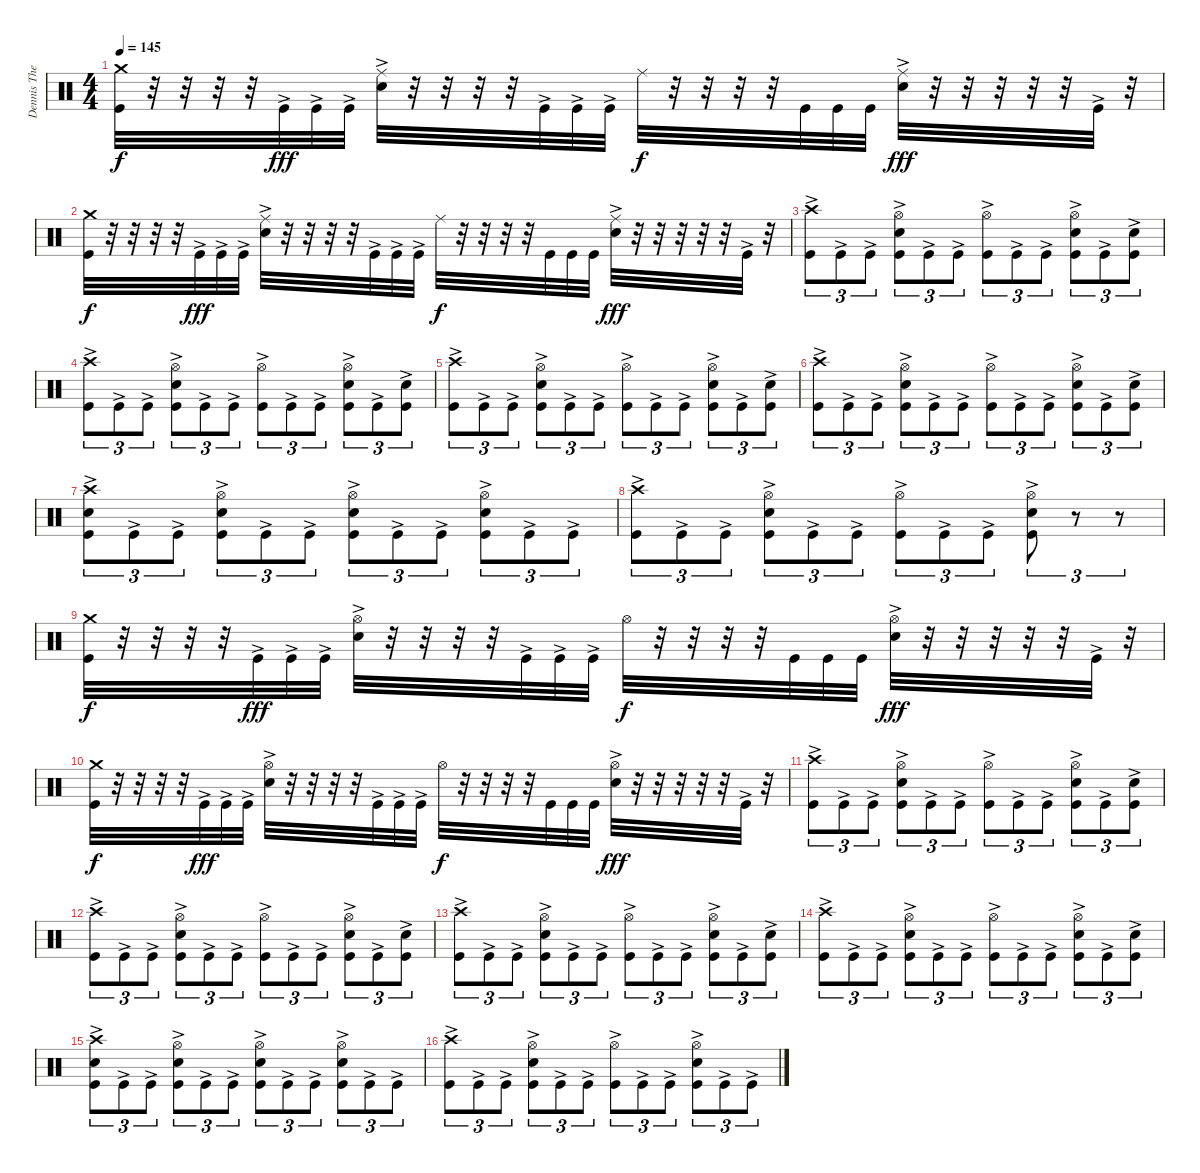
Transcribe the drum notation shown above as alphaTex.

\track ("Dennis The Menace" "Dennis The") {instrument percussion}
\staff {score}
\articulation defaults
\ts (4 4)
\tempo 145
\clef neutral
\ks c
("Crash medium (hit)" "Kick (hit)").32{dy f} r.32 r.32 r.32 r.32 "Kick (hit)"{ac}.32{dy fff} "Kick (hit)"{ac}.32 "Kick (hit)"{ac}.32 ("Ride (middle)" "Electric Snare (hit)"{ac}).32 r.32 r.32 r.32 r.32 "Kick (hit)"{ac}.32 "Kick (hit)"{ac}.32 "Kick (hit)"{ac}.32 "Ride (middle)".32{dy f} r.32 r.32 r.32 r.32 "Kick (hit)".32 "Kick (hit)".32 "Kick (hit)".32 ("Ride (middle)" "Electric Snare (hit)"{ac}).32{dy fff} r.32 r.32 r.32 r.32 r.32 "Kick (hit)"{ac}.32 r.32 |
("Crash medium (hit)" "Kick (hit)").32{dy f} r.32 r.32 r.32 r.32 "Kick (hit)"{ac}.32{dy fff} "Kick (hit)"{ac}.32 "Kick (hit)"{ac}.32 ("Ride (middle)" "Electric Snare (hit)"{ac}).32 r.32 r.32 r.32 r.32 "Kick (hit)"{ac}.32 "Kick (hit)"{ac}.32 "Kick (hit)"{ac}.32 "Ride (middle)".32{dy f} r.32 r.32 r.32 r.32 "Kick (hit)".32 "Kick (hit)".32 "Kick (hit)".32 ("Ride (middle)" "Electric Snare (hit)"{ac}).32{dy fff} r.32 r.32 r.32 r.32 r.32 "Kick (hit)"{ac}.32 r.32 |
("Crash high (hit)" "Kick (hit)"{ac}).8{tu (3 2)} "Kick (hit)"{ac}.8{tu (3 2)} "Kick (hit)"{ac}.8{tu (3 2)} ("Hi-Hat (open)" "Electric Snare (hit)"{ac} "Kick (hit)"{ac}).8{tu (3 2)} "Kick (hit)"{ac}.8{tu (3 2)} "Kick (hit)"{ac}.8{tu (3 2)} ("Hi-Hat (open)" "Kick (hit)"{ac}).8{tu (3 2)} "Kick (hit)"{ac}.8{tu (3 2)} "Kick (hit)"{ac}.8{tu (3 2)} ("Hi-Hat (open)" "Electric Snare (hit)"{ac} "Kick (hit)"{ac}).8{tu (3 2)} "Kick (hit)"{ac}.8{tu (3 2)} ("Electric Snare (hit)"{ac} "Kick (hit)"{ac}).8{tu (3 2)} |
("Crash high (hit)" "Kick (hit)"{ac}).8{tu (3 2)} "Kick (hit)"{ac}.8{tu (3 2)} "Kick (hit)"{ac}.8{tu (3 2)} ("Hi-Hat (open)" "Electric Snare (hit)"{ac} "Kick (hit)"{ac}).8{tu (3 2)} "Kick (hit)"{ac}.8{tu (3 2)} "Kick (hit)"{ac}.8{tu (3 2)} ("Hi-Hat (open)" "Kick (hit)"{ac}).8{tu (3 2)} "Kick (hit)"{ac}.8{tu (3 2)} "Kick (hit)"{ac}.8{tu (3 2)} ("Hi-Hat (open)" "Electric Snare (hit)"{ac} "Kick (hit)"{ac}).8{tu (3 2)} "Kick (hit)"{ac}.8{tu (3 2)} ("Electric Snare (hit)"{ac} "Kick (hit)"{ac}).8{tu (3 2)} |
("Crash high (hit)" "Kick (hit)"{ac}).8{tu (3 2)} "Kick (hit)"{ac}.8{tu (3 2)} "Kick (hit)"{ac}.8{tu (3 2)} ("Hi-Hat (open)" "Electric Snare (hit)"{ac} "Kick (hit)"{ac}).8{tu (3 2)} "Kick (hit)"{ac}.8{tu (3 2)} "Kick (hit)"{ac}.8{tu (3 2)} ("Hi-Hat (open)" "Kick (hit)"{ac}).8{tu (3 2)} "Kick (hit)"{ac}.8{tu (3 2)} "Kick (hit)"{ac}.8{tu (3 2)} ("Hi-Hat (open)" "Electric Snare (hit)"{ac} "Kick (hit)"{ac}).8{tu (3 2)} "Kick (hit)"{ac}.8{tu (3 2)} ("Electric Snare (hit)"{ac} "Kick (hit)"{ac}).8{tu (3 2)} |
("Crash high (hit)" "Kick (hit)"{ac}).8{tu (3 2)} "Kick (hit)"{ac}.8{tu (3 2)} "Kick (hit)"{ac}.8{tu (3 2)} ("Hi-Hat (open)" "Electric Snare (hit)"{ac} "Kick (hit)"{ac}).8{tu (3 2)} "Kick (hit)"{ac}.8{tu (3 2)} "Kick (hit)"{ac}.8{tu (3 2)} ("Hi-Hat (open)" "Kick (hit)"{ac}).8{tu (3 2)} "Kick (hit)"{ac}.8{tu (3 2)} "Kick (hit)"{ac}.8{tu (3 2)} ("Hi-Hat (open)" "Electric Snare (hit)"{ac} "Kick (hit)"{ac}).8{tu (3 2)} "Kick (hit)"{ac}.8{tu (3 2)} ("Electric Snare (hit)"{ac} "Kick (hit)"{ac}).8{tu (3 2)} |
("Crash high (hit)" "Electric Snare (hit)"{ac} "Kick (hit)"{ac}).8{tu (3 2)} "Kick (hit)"{ac}.8{tu (3 2)} "Kick (hit)"{ac}.8{tu (3 2)} ("Hi-Hat (open)" "Electric Snare (hit)"{ac} "Kick (hit)"{ac}).8{tu (3 2)} "Kick (hit)"{ac}.8{tu (3 2)} "Kick (hit)"{ac}.8{tu (3 2)} ("Hi-Hat (open)" "Electric Snare (hit)"{ac} "Kick (hit)"{ac}).8{tu (3 2)} "Kick (hit)"{ac}.8{tu (3 2)} "Kick (hit)"{ac}.8{tu (3 2)} ("Hi-Hat (open)" "Electric Snare (hit)"{ac} "Kick (hit)"{ac}).8{tu (3 2)} "Kick (hit)"{ac}.8{tu (3 2)} "Kick (hit)"{ac}.8{tu (3 2)} |
("Crash high (hit)" "Kick (hit)"{ac}).8{tu (3 2)} "Kick (hit)"{ac}.8{tu (3 2)} "Kick (hit)"{ac}.8{tu (3 2)} ("Hi-Hat (open)" "Electric Snare (hit)"{ac} "Kick (hit)"{ac}).8{tu (3 2)} "Kick (hit)"{ac}.8{tu (3 2)} "Kick (hit)"{ac}.8{tu (3 2)} ("Hi-Hat (open)" "Kick (hit)"{ac}).8{tu (3 2)} "Kick (hit)"{ac}.8{tu (3 2)} "Kick (hit)"{ac}.8{tu (3 2)} ("Hi-Hat (open)" "Electric Snare (hit)"{ac} "Kick (hit)"{ac}).8{tu (3 2)} r.8{tu (3 2)} r.8{tu (3 2)} |
("Crash medium (hit)" "Kick (hit)").32{dy f} r.32 r.32 r.32 r.32 "Kick (hit)"{ac}.32{dy fff} "Kick (hit)"{ac}.32 "Kick (hit)"{ac}.32 ("Hi-Hat (open)" "Electric Snare (hit)"{ac}).32 r.32 r.32 r.32 r.32 "Kick (hit)"{ac}.32 "Kick (hit)"{ac}.32 "Kick (hit)"{ac}.32 "Hi-Hat (open)".32{dy f} r.32 r.32 r.32 r.32 "Kick (hit)".32 "Kick (hit)".32 "Kick (hit)".32 ("Hi-Hat (open)" "Electric Snare (hit)"{ac}).32{dy fff} r.32 r.32 r.32 r.32 r.32 "Kick (hit)"{ac}.32 r.32 |
("Crash medium (hit)" "Kick (hit)").32{dy f} r.32 r.32 r.32 r.32 "Kick (hit)"{ac}.32{dy fff} "Kick (hit)"{ac}.32 "Kick (hit)"{ac}.32 ("Hi-Hat (open)" "Electric Snare (hit)"{ac}).32 r.32 r.32 r.32 r.32 "Kick (hit)"{ac}.32 "Kick (hit)"{ac}.32 "Kick (hit)"{ac}.32 "Hi-Hat (open)".32{dy f} r.32 r.32 r.32 r.32 "Kick (hit)".32 "Kick (hit)".32 "Kick (hit)".32 ("Hi-Hat (open)" "Electric Snare (hit)"{ac}).32{dy fff} r.32 r.32 r.32 r.32 r.32 "Kick (hit)"{ac}.32 r.32 |
("Crash high (hit)" "Kick (hit)"{ac}).8{tu (3 2)} "Kick (hit)"{ac}.8{tu (3 2)} "Kick (hit)"{ac}.8{tu (3 2)} ("Hi-Hat (open)" "Electric Snare (hit)"{ac} "Kick (hit)"{ac}).8{tu (3 2)} "Kick (hit)"{ac}.8{tu (3 2)} "Kick (hit)"{ac}.8{tu (3 2)} ("Hi-Hat (open)" "Kick (hit)"{ac}).8{tu (3 2)} "Kick (hit)"{ac}.8{tu (3 2)} "Kick (hit)"{ac}.8{tu (3 2)} ("Hi-Hat (open)" "Electric Snare (hit)"{ac} "Kick (hit)"{ac}).8{tu (3 2)} "Kick (hit)"{ac}.8{tu (3 2)} ("Electric Snare (hit)"{ac} "Kick (hit)"{ac}).8{tu (3 2)} |
("Crash high (hit)" "Kick (hit)"{ac}).8{tu (3 2)} "Kick (hit)"{ac}.8{tu (3 2)} "Kick (hit)"{ac}.8{tu (3 2)} ("Hi-Hat (open)" "Electric Snare (hit)"{ac} "Kick (hit)"{ac}).8{tu (3 2)} "Kick (hit)"{ac}.8{tu (3 2)} "Kick (hit)"{ac}.8{tu (3 2)} ("Hi-Hat (open)" "Kick (hit)"{ac}).8{tu (3 2)} "Kick (hit)"{ac}.8{tu (3 2)} "Kick (hit)"{ac}.8{tu (3 2)} ("Hi-Hat (open)" "Electric Snare (hit)"{ac} "Kick (hit)"{ac}).8{tu (3 2)} "Kick (hit)"{ac}.8{tu (3 2)} ("Electric Snare (hit)"{ac} "Kick (hit)"{ac}).8{tu (3 2)} |
("Crash high (hit)" "Kick (hit)"{ac}).8{tu (3 2)} "Kick (hit)"{ac}.8{tu (3 2)} "Kick (hit)"{ac}.8{tu (3 2)} ("Hi-Hat (open)" "Electric Snare (hit)"{ac} "Kick (hit)"{ac}).8{tu (3 2)} "Kick (hit)"{ac}.8{tu (3 2)} "Kick (hit)"{ac}.8{tu (3 2)} ("Hi-Hat (open)" "Kick (hit)"{ac}).8{tu (3 2)} "Kick (hit)"{ac}.8{tu (3 2)} "Kick (hit)"{ac}.8{tu (3 2)} ("Hi-Hat (open)" "Electric Snare (hit)"{ac} "Kick (hit)"{ac}).8{tu (3 2)} "Kick (hit)"{ac}.8{tu (3 2)} ("Electric Snare (hit)"{ac} "Kick (hit)"{ac}).8{tu (3 2)} |
("Crash high (hit)" "Kick (hit)"{ac}).8{tu (3 2)} "Kick (hit)"{ac}.8{tu (3 2)} "Kick (hit)"{ac}.8{tu (3 2)} ("Hi-Hat (open)" "Electric Snare (hit)"{ac} "Kick (hit)"{ac}).8{tu (3 2)} "Kick (hit)"{ac}.8{tu (3 2)} "Kick (hit)"{ac}.8{tu (3 2)} ("Hi-Hat (open)" "Kick (hit)"{ac}).8{tu (3 2)} "Kick (hit)"{ac}.8{tu (3 2)} "Kick (hit)"{ac}.8{tu (3 2)} ("Hi-Hat (open)" "Electric Snare (hit)"{ac} "Kick (hit)"{ac}).8{tu (3 2)} "Kick (hit)"{ac}.8{tu (3 2)} ("Electric Snare (hit)"{ac} "Kick (hit)"{ac}).8{tu (3 2)} |
("Crash high (hit)" "Electric Snare (hit)"{ac} "Kick (hit)"{ac}).8{tu (3 2)} "Kick (hit)"{ac}.8{tu (3 2)} "Kick (hit)"{ac}.8{tu (3 2)} ("Hi-Hat (open)" "Electric Snare (hit)"{ac} "Kick (hit)"{ac}).8{tu (3 2)} "Kick (hit)"{ac}.8{tu (3 2)} "Kick (hit)"{ac}.8{tu (3 2)} ("Hi-Hat (open)" "Electric Snare (hit)"{ac} "Kick (hit)"{ac}).8{tu (3 2)} "Kick (hit)"{ac}.8{tu (3 2)} "Kick (hit)"{ac}.8{tu (3 2)} ("Hi-Hat (open)" "Electric Snare (hit)"{ac} "Kick (hit)"{ac}).8{tu (3 2)} "Kick (hit)"{ac}.8{tu (3 2)} "Kick (hit)"{ac}.8{tu (3 2)} |
("Crash high (hit)" "Kick (hit)"{ac}).8{tu (3 2)} "Kick (hit)"{ac}.8{tu (3 2)} "Kick (hit)"{ac}.8{tu (3 2)} ("Hi-Hat (open)" "Electric Snare (hit)"{ac} "Kick (hit)"{ac}).8{tu (3 2)} "Kick (hit)"{ac}.8{tu (3 2)} "Kick (hit)"{ac}.8{tu (3 2)} ("Hi-Hat (open)" "Kick (hit)"{ac}).8{tu (3 2)} "Kick (hit)"{ac}.8{tu (3 2)} "Kick (hit)"{ac}.8{tu (3 2)} ("Hi-Hat (open)" "Electric Snare (hit)"{ac} "Kick (hit)"{ac}).8{tu (3 2)} "Kick (hit)"{ac}.8{tu (3 2)} "Kick (hit)"{ac}.8{tu (3 2)}
